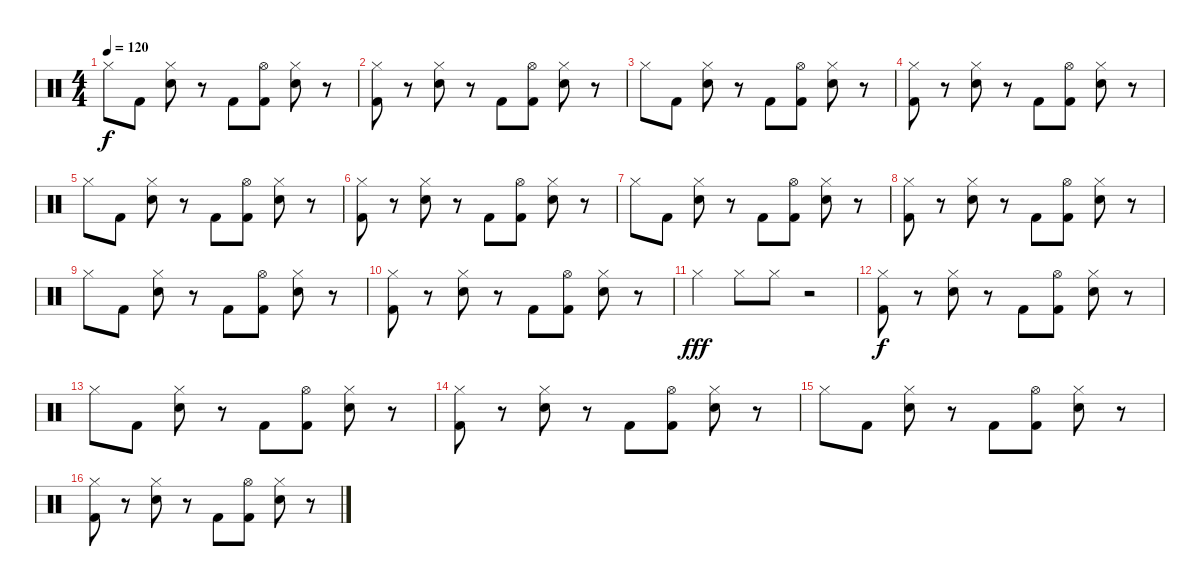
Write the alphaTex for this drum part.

\track "" {instrument percussion}
\staff {score}
\articulation defaults
\ts (4 4)
\tempo 120
\clef neutral
\ks c "Hi-Hat (closed)".8{dy f} "Kick (hit) 2".8
("Hi-Hat (closed)" "Snare (hit) 2").8 r.8 "Kick (hit) 2".8 ("Hi-Hat (open)" "Kick (hit) 2").8 ("Hi-Hat (closed)" "Snare (hit) 2").8 r.8 |
("Hi-Hat (closed)" "Kick (hit) 2").8 r.8 ("Hi-Hat (closed)" "Snare (hit) 2").8 r.8 "Kick (hit) 2".8 ("Hi-Hat (open)" "Kick (hit) 2").8 ("Hi-Hat (closed)" "Snare (hit) 2").8 r.8 |
"Hi-Hat (closed)".8 "Kick (hit) 2".8 ("Hi-Hat (closed)" "Snare (hit) 2").8 r.8 "Kick (hit) 2".8 ("Hi-Hat (open)" "Kick (hit) 2").8 ("Hi-Hat (closed)" "Snare (hit) 2").8 r.8 |
("Hi-Hat (closed)" "Kick (hit) 2").8 r.8 ("Hi-Hat (closed)" "Snare (hit) 2").8 r.8 "Kick (hit) 2".8 ("Hi-Hat (open)" "Kick (hit) 2").8 ("Hi-Hat (closed)" "Snare (hit) 2").8 r.8 |
"Hi-Hat (closed)".8 "Kick (hit) 2".8 ("Hi-Hat (closed)" "Snare (hit) 2").8 r.8 "Kick (hit) 2".8 ("Hi-Hat (open)" "Kick (hit) 2").8 ("Hi-Hat (closed)" "Snare (hit) 2").8 r.8 |
("Hi-Hat (closed)" "Kick (hit) 2").8 r.8 ("Hi-Hat (closed)" "Snare (hit) 2").8 r.8 "Kick (hit) 2".8 ("Hi-Hat (open)" "Kick (hit) 2").8 ("Hi-Hat (closed)" "Snare (hit) 2").8 r.8 |
"Hi-Hat (closed)".8 "Kick (hit) 2".8 ("Hi-Hat (closed)" "Snare (hit) 2").8 r.8 "Kick (hit) 2".8 ("Hi-Hat (open)" "Kick (hit) 2").8 ("Hi-Hat (closed)" "Snare (hit) 2").8 r.8 |
("Hi-Hat (closed)" "Kick (hit) 2").8 r.8 ("Hi-Hat (closed)" "Snare (hit) 2").8 r.8 "Kick (hit) 2".8 ("Hi-Hat (open)" "Kick (hit) 2").8 ("Hi-Hat (closed)" "Snare (hit) 2").8 r.8 |
"Hi-Hat (closed)".8 "Kick (hit) 2".8 ("Hi-Hat (closed)" "Snare (hit) 2").8 r.8 "Kick (hit) 2".8 ("Hi-Hat (open)" "Kick (hit) 2").8 ("Hi-Hat (closed)" "Snare (hit) 2").8 r.8 |
("Hi-Hat (closed)" "Kick (hit) 2").8 r.8 ("Hi-Hat (closed)" "Snare (hit) 2").8 r.8 "Kick (hit) 2".8 ("Hi-Hat (open)" "Kick (hit) 2").8 ("Hi-Hat (closed)" "Snare (hit) 2").8 r.8 |
"Hi-Hat (closed)".4{dy fff} "Hi-Hat (closed)".8 "Hi-Hat (closed)".8 r.2 |
("Hi-Hat (closed)" "Kick (hit) 2").8{dy f} r.8 ("Hi-Hat (closed)" "Snare (hit) 2").8 r.8 "Kick (hit) 2".8 ("Hi-Hat (open)" "Kick (hit) 2").8 ("Hi-Hat (closed)" "Snare (hit) 2").8 r.8 |
"Hi-Hat (closed)".8 "Kick (hit) 2".8 ("Hi-Hat (closed)" "Snare (hit) 2").8 r.8 "Kick (hit) 2".8 ("Hi-Hat (open)" "Kick (hit) 2").8 ("Hi-Hat (closed)" "Snare (hit) 2").8 r.8 |
("Hi-Hat (closed)" "Kick (hit) 2").8 r.8 ("Hi-Hat (closed)" "Snare (hit) 2").8 r.8 "Kick (hit) 2".8 ("Hi-Hat (open)" "Kick (hit) 2").8 ("Hi-Hat (closed)" "Snare (hit) 2").8 r.8 |
"Hi-Hat (closed)".8 "Kick (hit) 2".8 ("Hi-Hat (closed)" "Snare (hit) 2").8 r.8 "Kick (hit) 2".8 ("Hi-Hat (open)" "Kick (hit) 2").8 ("Hi-Hat (closed)" "Snare (hit) 2").8 r.8 |
("Hi-Hat (closed)" "Kick (hit) 2").8 r.8 ("Hi-Hat (closed)" "Snare (hit) 2").8 r.8 "Kick (hit) 2".8 ("Hi-Hat (open)" "Kick (hit) 2").8 ("Hi-Hat (closed)" "Snare (hit) 2").8 r.8
